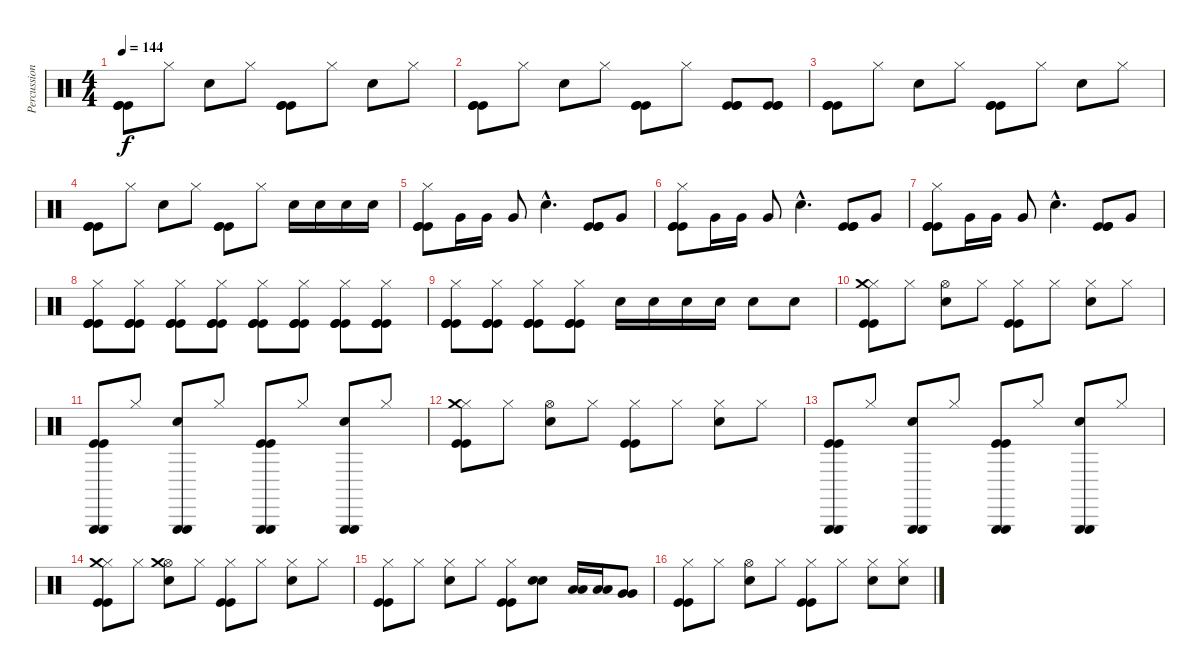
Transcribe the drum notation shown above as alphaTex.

\track ("Percussion" "Percussion") {instrument percussion}
\staff {score}
\articulation defaults
\ts (4 4)
\tempo 144
\clef neutral
\ks c
("Kick (hit)" "Kick (hit)" "Kick (hit)").8{dy f} "Hi-Hat (closed)".8 "Snare (hit) 2".8 "Hi-Hat (closed)".8 ("Kick (hit)" "Kick (hit)" "Kick (hit)").8 "Hi-Hat (closed)".8 "Snare (hit) 2".8 "Hi-Hat (closed)".8 |
("Kick (hit)" "Kick (hit)" "Kick (hit)").8 "Hi-Hat (closed)".8 "Snare (hit) 2".8 "Hi-Hat (closed)".8 ("Kick (hit)" "Kick (hit)" "Kick (hit)").8 "Hi-Hat (closed)".8 ("Kick (hit)" "Kick (hit)" "Kick (hit)").8 ("Kick (hit)" "Kick (hit)" "Kick (hit)").8 |
("Kick (hit)" "Kick (hit)" "Kick (hit)").8 "Hi-Hat (closed)".8 "Snare (hit) 2".8 "Hi-Hat (closed)".8 ("Kick (hit)" "Kick (hit)" "Kick (hit)").8 "Hi-Hat (closed)".8 "Snare (hit) 2".8 "Hi-Hat (closed)".8 |
("Kick (hit)" "Kick (hit)" "Kick (hit)").8 "Hi-Hat (closed)".8 "Snare (hit) 2".8 "Hi-Hat (closed)".8 ("Kick (hit)" "Kick (hit)" "Kick (hit)").8 "Hi-Hat (closed)".8 "Snare (hit) 2".16 "Snare (hit) 2".16 "Snare (hit) 2".16 "Snare (hit) 2".16 |
("Kick (hit)" "Kick (hit)" "Kick (hit)" "Hi-Hat (closed)").8 "Very Low Tom (hit)".16 "Very Low Tom (hit)".16 "Very Low Tom (hit)".8 "Snare (hit) 2"{hac}.4{d} ("Kick (hit)" "Kick (hit)" "Kick (hit)").8 "Very Low Tom (hit)".8 |
("Kick (hit)" "Kick (hit)" "Kick (hit)" "Hi-Hat (closed)").8 "Very Low Tom (hit)".16 "Very Low Tom (hit)".16 "Very Low Tom (hit)".8 "Snare (hit) 2"{hac}.4{d} ("Kick (hit)" "Kick (hit)" "Kick (hit)").8 "Very Low Tom (hit)".8 |
("Kick (hit)" "Kick (hit)" "Kick (hit)" "Hi-Hat (closed)").8 "Very Low Tom (hit)".16 "Very Low Tom (hit)".16 "Very Low Tom (hit)".8 "Snare (hit) 2"{hac}.4{d} ("Kick (hit)" "Kick (hit)" "Kick (hit)").8 "Very Low Tom (hit)".8 |
("Hi-Hat (closed)" "Kick (hit)" "Kick (hit)" "Kick (hit)").8 ("Hi-Hat (closed)" "Kick (hit)" "Kick (hit)" "Kick (hit)").8 ("Hi-Hat (closed)" "Kick (hit)" "Kick (hit)" "Kick (hit)").8 ("Hi-Hat (closed)" "Kick (hit)" "Kick (hit)" "Kick (hit)").8 ("Hi-Hat (closed)" "Kick (hit)" "Kick (hit)" "Kick (hit)").8 ("Hi-Hat (closed)" "Kick (hit)" "Kick (hit)" "Kick (hit)").8 ("Hi-Hat (closed)" "Kick (hit)" "Kick (hit)" "Kick (hit)").8 ("Hi-Hat (closed)" "Kick (hit)" "Kick (hit)" "Kick (hit)").8 |
("Hi-Hat (closed)" "Kick (hit)" "Kick (hit)" "Kick (hit)").8 ("Hi-Hat (closed)" "Kick (hit)" "Kick (hit)" "Kick (hit)").8 ("Hi-Hat (closed)" "Kick (hit)" "Kick (hit)" "Kick (hit)").8 ("Hi-Hat (closed)" "Kick (hit)" "Kick (hit)" "Kick (hit)").8 "Snare (hit) 2".16 "Snare (hit) 2".16 "Snare (hit) 2".16 "Snare (hit) 2".16 "Snare (hit) 2".8 "Snare (hit) 2".8 |
("Hi-Hat (closed)" "Kick (hit)" "Kick (hit)" "Crash medium (hit)").8 "Hi-Hat (closed)".8 ("Hi-Hat (open)" "Snare (hit) 2").8 "Hi-Hat (closed)".8 ("Hi-Hat (closed)" "Kick (hit)" "Kick (hit)").8 "Hi-Hat (closed)".8 ("Hi-Hat (closed)" "Snare (hit) 2").8 "Hi-Hat (closed)".8 |
("Triangle (hit)" "Kick (hit)" "Kick (hit)" "Triangle (hit)").8 "Hi-Hat (closed)".8 ("Triangle (hit)" "Snare (hit) 2" "Triangle (hit)").8 "Hi-Hat (closed)".8 ("Triangle (hit)" "Kick (hit)" "Kick (hit)" "Triangle (hit)").8 "Hi-Hat (closed)".8 ("Triangle (hit)" "Snare (hit) 2" "Triangle (hit)").8 "Hi-Hat (closed)".8 |
("Hi-Hat (closed)" "Kick (hit)" "Kick (hit)" "Crash medium (hit)").8 "Hi-Hat (closed)".8 ("Hi-Hat (open)" "Snare (hit) 2").8 "Hi-Hat (closed)".8 ("Hi-Hat (closed)" "Kick (hit)" "Kick (hit)").8 "Hi-Hat (closed)".8 ("Hi-Hat (closed)" "Snare (hit) 2").8 "Hi-Hat (closed)".8 |
("Triangle (hit)" "Kick (hit)" "Kick (hit)" "Triangle (hit)").8 "Hi-Hat (closed)".8 ("Triangle (hit)" "Snare (hit) 2" "Triangle (hit)").8 "Hi-Hat (closed)".8 ("Triangle (hit)" "Kick (hit)" "Kick (hit)" "Triangle (hit)").8 "Hi-Hat (closed)".8 ("Triangle (hit)" "Snare (hit) 2" "Triangle (hit)").8 "Hi-Hat (closed)".8 |
("Hi-Hat (closed)" "Kick (hit)" "Kick (hit)" "Crash medium (hit)").8 "Hi-Hat (closed)".8 ("Hi-Hat (open)" "Snare (hit) 2" "Crash medium (hit)").8 "Hi-Hat (closed)".8 ("Hi-Hat (closed)" "Kick (hit)" "Kick (hit)").8 "Hi-Hat (closed)".8 ("Hi-Hat (closed)" "Snare (hit) 2").8 "Hi-Hat (closed)".8 |
("Hi-Hat (closed)" "Kick (hit)" "Kick (hit)").8 "Hi-Hat (closed)".8 ("Hi-Hat (closed)" "Snare (hit) 2").8 "Hi-Hat (closed)".8 ("Hi-Hat (closed)" "Kick (hit)" "Kick (hit)").8 ("Snare (hit) 2" "Snare (hit) 2").8 ("Low Floor Tom (hit)" "Low Floor Tom (hit)").16 ("Low Floor Tom (hit)" "Low Floor Tom (hit)").16 ("Very Low Tom (hit)" "Very Low Tom (hit)").8 |
("Hi-Hat (closed)" "Kick (hit)" "Kick (hit)").8 "Hi-Hat (closed)".8 ("Hi-Hat (open)" "Snare (hit) 2").8 "Hi-Hat (closed)".8 ("Hi-Hat (closed)" "Kick (hit)" "Kick (hit)").8 "Hi-Hat (closed)".8 ("Hi-Hat (closed)" "Snare (hit) 2").8 ("Hi-Hat (closed)" "Snare (hit) 2").8
